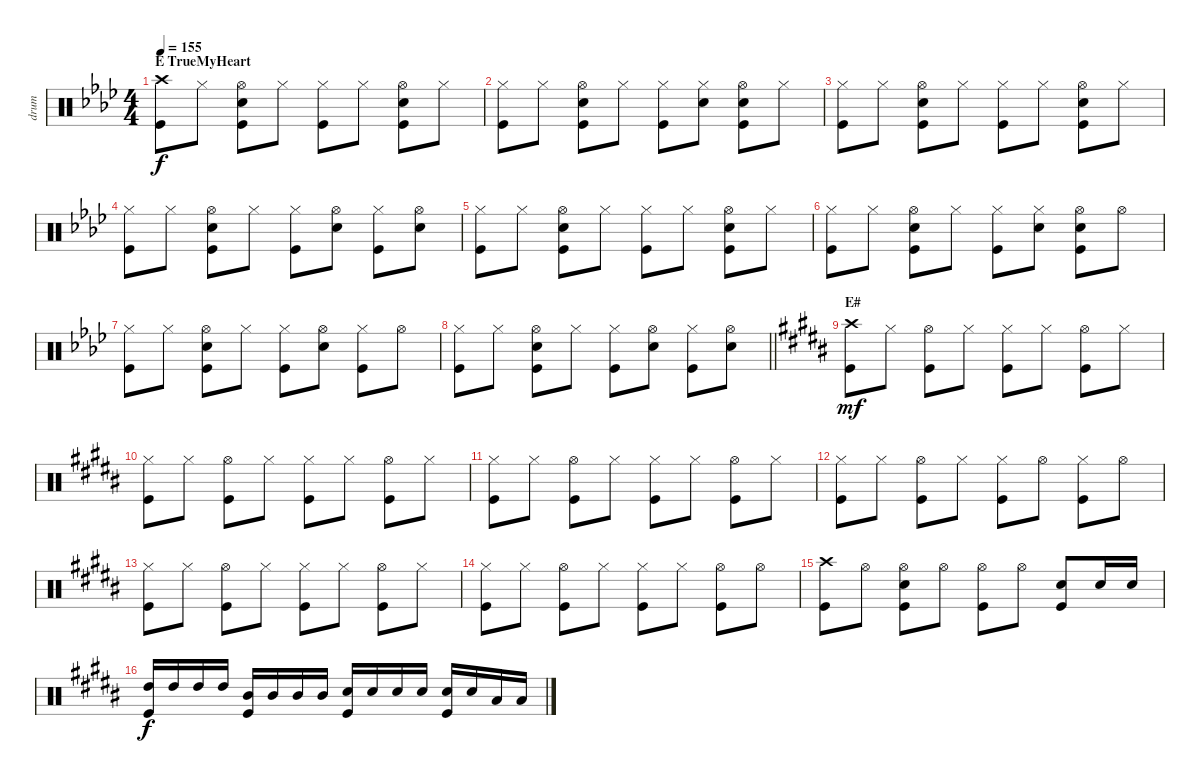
\track ("drum" "drum") {instrument percussion}
\staff {score}
\articulation defaults
\ts (4 4)
\section ("" "E TrueMyHeart")
\tempo 155
\clef neutral
\ks ab
("Crash high (hit)" "Kick (hit)").8{dy f} "Hi-Hat (closed)".8 ("Hi-Hat (open)" "Snare (hit) 2" "Kick (hit)").8 "Hi-Hat (closed)".8 ("Hi-Hat (closed)" "Kick (hit)").8 "Hi-Hat (closed)".8 ("Hi-Hat (open)" "Snare (hit) 2" "Kick (hit)").8 "Hi-Hat (closed)".8 |
("Hi-Hat (closed)" "Kick (hit)").8 "Hi-Hat (closed)".8 ("Hi-Hat (open)" "Snare (hit) 2" "Kick (hit)").8 "Hi-Hat (closed)".8 ("Hi-Hat (closed)" "Kick (hit)").8 ("Hi-Hat (closed)" "Snare (hit) 2").8 ("Hi-Hat (open)" "Snare (hit) 2" "Kick (hit)").8 "Hi-Hat (closed)".8 |
("Hi-Hat (closed)" "Kick (hit)").8 "Hi-Hat (closed)".8 ("Hi-Hat (open)" "Snare (hit) 2" "Kick (hit)").8 "Hi-Hat (closed)".8 ("Hi-Hat (closed)" "Kick (hit)").8 "Hi-Hat (closed)".8 ("Hi-Hat (open)" "Snare (hit) 2" "Kick (hit)").8 "Hi-Hat (closed)".8 |
("Hi-Hat (closed)" "Kick (hit)").8 "Hi-Hat (closed)".8 ("Hi-Hat (open)" "Snare (hit) 2" "Kick (hit)").8 "Hi-Hat (closed)".8 ("Hi-Hat (closed)" "Kick (hit)").8 ("Hi-Hat (open)" "Snare (hit) 2").8 ("Hi-Hat (closed)" "Kick (hit)").8 ("Hi-Hat (open)" "Snare (hit) 2").8 |
("Hi-Hat (closed)" "Kick (hit)").8 "Hi-Hat (closed)".8 ("Hi-Hat (open)" "Snare (hit) 2" "Kick (hit)").8 "Hi-Hat (closed)".8 ("Hi-Hat (closed)" "Kick (hit)").8 "Hi-Hat (closed)".8 ("Hi-Hat (open)" "Snare (hit) 2" "Kick (hit)").8 "Hi-Hat (closed)".8 |
("Hi-Hat (closed)" "Kick (hit)").8 "Hi-Hat (closed)".8 ("Hi-Hat (open)" "Snare (hit) 2" "Kick (hit)").8 "Hi-Hat (closed)".8 ("Hi-Hat (closed)" "Kick (hit)").8 ("Hi-Hat (closed)" "Snare (hit) 2").8 ("Hi-Hat (open)" "Snare (hit) 2" "Kick (hit)").8 "Hi-Hat (open)".8 |
("Hi-Hat (closed)" "Kick (hit)").8 "Hi-Hat (closed)".8 ("Hi-Hat (open)" "Snare (hit) 2" "Kick (hit)").8 "Hi-Hat (closed)".8 ("Hi-Hat (closed)" "Kick (hit)").8 ("Hi-Hat (open)" "Snare (hit) 2").8 ("Hi-Hat (closed)" "Kick (hit)").8 "Hi-Hat (open)".8 |
\barLineRight lightlight
("Hi-Hat (closed)" "Kick (hit)").8 "Hi-Hat (closed)".8 ("Hi-Hat (open)" "Snare (hit) 2" "Kick (hit)").8 "Hi-Hat (closed)".8 ("Hi-Hat (closed)" "Kick (hit)").8 ("Hi-Hat (open)" "Snare (hit) 2").8 ("Hi-Hat (closed)" "Kick (hit)").8 ("Hi-Hat (open)" "Snare (hit) 2").8 |
\section ("" "E#")
\ks b
("Crash high (hit)" "Kick (hit)").8{dy mf} "Hi-Hat (closed)".8 ("Hi-Hat (open)" "Kick (hit)").8 "Hi-Hat (closed)".8 ("Hi-Hat (closed)" "Kick (hit)").8 "Hi-Hat (closed)".8 ("Hi-Hat (open)" "Kick (hit)").8 "Hi-Hat (closed)".8 |
("Hi-Hat (closed)" "Kick (hit)").8 "Hi-Hat (closed)".8 ("Hi-Hat (open)" "Kick (hit)").8 "Hi-Hat (closed)".8 ("Hi-Hat (closed)" "Kick (hit)").8 "Hi-Hat (closed)".8 ("Hi-Hat (open)" "Kick (hit)").8 "Hi-Hat (closed)".8 |
("Hi-Hat (closed)" "Kick (hit)").8 "Hi-Hat (closed)".8 ("Hi-Hat (open)" "Kick (hit)").8 "Hi-Hat (closed)".8 ("Hi-Hat (closed)" "Kick (hit)").8 "Hi-Hat (closed)".8 ("Hi-Hat (open)" "Kick (hit)").8 "Hi-Hat (closed)".8 |
("Hi-Hat (closed)" "Kick (hit)").8 "Hi-Hat (closed)".8 ("Hi-Hat (open)" "Kick (hit)").8 "Hi-Hat (closed)".8 ("Hi-Hat (closed)" "Kick (hit)").8 "Hi-Hat (open)".8 ("Hi-Hat (closed)" "Kick (hit)").8 "Hi-Hat (open)".8 |
("Hi-Hat (closed)" "Kick (hit)").8 "Hi-Hat (closed)".8 ("Hi-Hat (open)" "Kick (hit)").8 "Hi-Hat (closed)".8 ("Hi-Hat (closed)" "Kick (hit)").8 "Hi-Hat (closed)".8 ("Hi-Hat (open)" "Kick (hit)").8 "Hi-Hat (closed)".8 |
("Hi-Hat (closed)" "Kick (hit)").8 "Hi-Hat (closed)".8 ("Hi-Hat (open)" "Kick (hit)").8 "Hi-Hat (closed)".8 ("Hi-Hat (closed)" "Kick (hit)").8 "Hi-Hat (closed)".8 ("Hi-Hat (open)" "Kick (hit)").8 "Hi-Hat (open)".8 |
("Crash high (hit)" "Kick (hit)").8 "Hi-Hat (open)".8 ("Hi-Hat (open)" "Snare (hit) 2" "Kick (hit)").8 "Hi-Hat (open)".8 ("Hi-Hat (open)" "Kick (hit)").8 "Hi-Hat (open)".8 ("Snare (hit) 2" "Kick (hit)").8 "Snare (hit) 2".16 "Snare (hit) 2".16 |
("High Tom (hit)" "Kick (hit)").16{dy f} "High Tom (hit)".16 "High Tom (hit)".16 "High Tom (hit)".16 ("Mid Tom (hit)" "Kick (hit)").16 "Mid Tom (hit)".16 "Mid Tom (hit)".16 "Mid Tom (hit)".16 ("Snare (hit) 2" "Kick (hit)").16 "Snare (hit) 2".16 "Snare (hit) 2".16 "Snare (hit) 2".16 ("Snare (hit) 2" "Kick (hit)").16 "Snare (hit) 2".16 "Low Tom (hit)".16 "Low Tom (hit)".16
